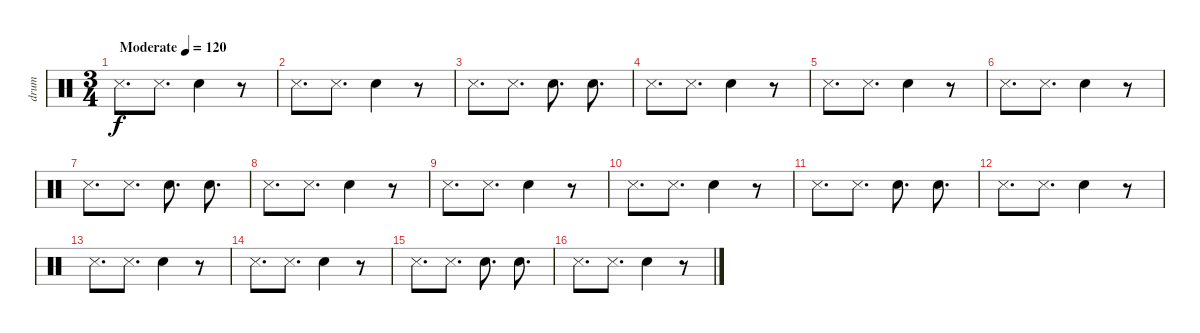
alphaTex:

\track ("drum" "drum") {instrument percussion}
\staff {score}
\articulation defaults
\ts (3 4)
\tempo (120 "Moderate")
\clef neutral
\ks c "Snare (side stick) 3".8{d dy f} "Snare (side stick) 3".8{d} "Snare (hit) 2".4
r.8 |
"Snare (side stick) 3".8{d} "Snare (side stick) 3".8{d} "Snare (hit) 2".4 r.8 |
"Snare (side stick) 3".8{d} "Snare (side stick) 3".8{d} "Snare (hit) 2".8{d} "Snare (hit) 2".8{d} |
"Snare (side stick) 3".8{d} "Snare (side stick) 3".8{d} "Snare (hit) 2".4 r.8 |
"Snare (side stick) 3".8{d} "Snare (side stick) 3".8{d} "Snare (hit) 2".4 r.8 |
"Snare (side stick) 3".8{d} "Snare (side stick) 3".8{d} "Snare (hit) 2".4 r.8 |
"Snare (side stick) 3".8{d} "Snare (side stick) 3".8{d} "Snare (hit) 2".8{d} "Snare (hit) 2".8{d} |
"Snare (side stick) 3".8{d} "Snare (side stick) 3".8{d} "Snare (hit) 2".4 r.8 |
"Snare (side stick) 3".8{d} "Snare (side stick) 3".8{d} "Snare (hit) 2".4 r.8 |
"Snare (side stick) 3".8{d} "Snare (side stick) 3".8{d} "Snare (hit) 2".4 r.8 |
"Snare (side stick) 3".8{d} "Snare (side stick) 3".8{d} "Snare (hit) 2".8{d} "Snare (hit) 2".8{d} |
"Snare (side stick) 3".8{d} "Snare (side stick) 3".8{d} "Snare (hit) 2".4 r.8 |
"Snare (side stick) 3".8{d} "Snare (side stick) 3".8{d} "Snare (hit) 2".4 r.8 |
"Snare (side stick) 3".8{d} "Snare (side stick) 3".8{d} "Snare (hit) 2".4 r.8 |
"Snare (side stick) 3".8{d} "Snare (side stick) 3".8{d} "Snare (hit) 2".8{d} "Snare (hit) 2".8{d} |
"Snare (side stick) 3".8{d} "Snare (side stick) 3".8{d} "Snare (hit) 2".4 r.8
